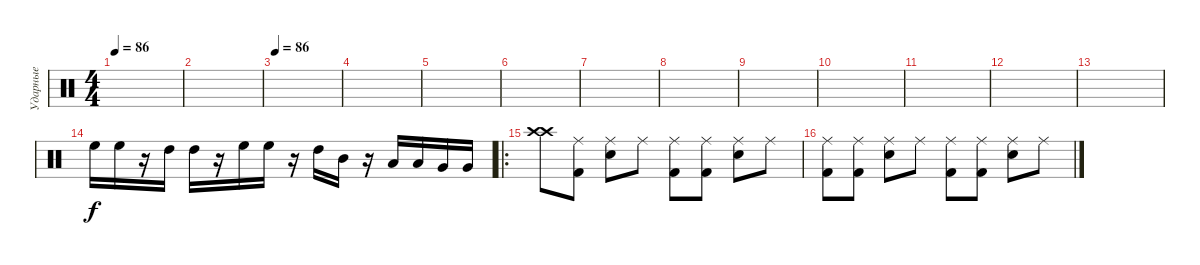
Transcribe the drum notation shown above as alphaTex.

\track ("Ударные" "Ударные") {instrument percussion}
\staff {score}
\articulation defaults
\ts (4 4)
\tempo 86
\clef neutral
\ks c
|
|
\tempo 86
|
|
|
|
|
|
|
|
|
|
|
"High Floor Tom (hit)".16 "High Floor Tom (hit)".16 r.16 "High Tom (hit)".16 "High Tom (hit)".16 r.16 "High Floor Tom (hit)".16 "High Floor Tom (hit)".16 r.16 "High Tom (hit)".16 "Mid Tom (hit)".16 r.16 "Low Tom (hit)".16 "Low Tom (hit)".16 "Very Low Tom (hit)".16 "Very Low Tom (hit)".16 |
\ro
("Crash high (hit)" "Crash high (hit)").8 ("Kick (hit) 2" "Ride (middle)").8 ("Snare (hit) 2" "Ride (middle)").8 "Ride (middle)".8 ("Kick (hit) 2" "Ride (middle)").8 ("Kick (hit) 2" "Ride (middle)").8 ("Snare (hit) 2" "Ride (middle)").8 "Ride (middle)".8 |
("Kick (hit) 2" "Ride (middle)").8 ("Kick (hit) 2" "Ride (middle)").8 ("Snare (hit) 2" "Ride (middle)").8 "Ride (middle)".8 ("Kick (hit) 2" "Ride (middle)").8 ("Kick (hit) 2" "Ride (middle)").8 ("Snare (hit) 2" "Ride (middle)").8 "Ride (middle)".8
